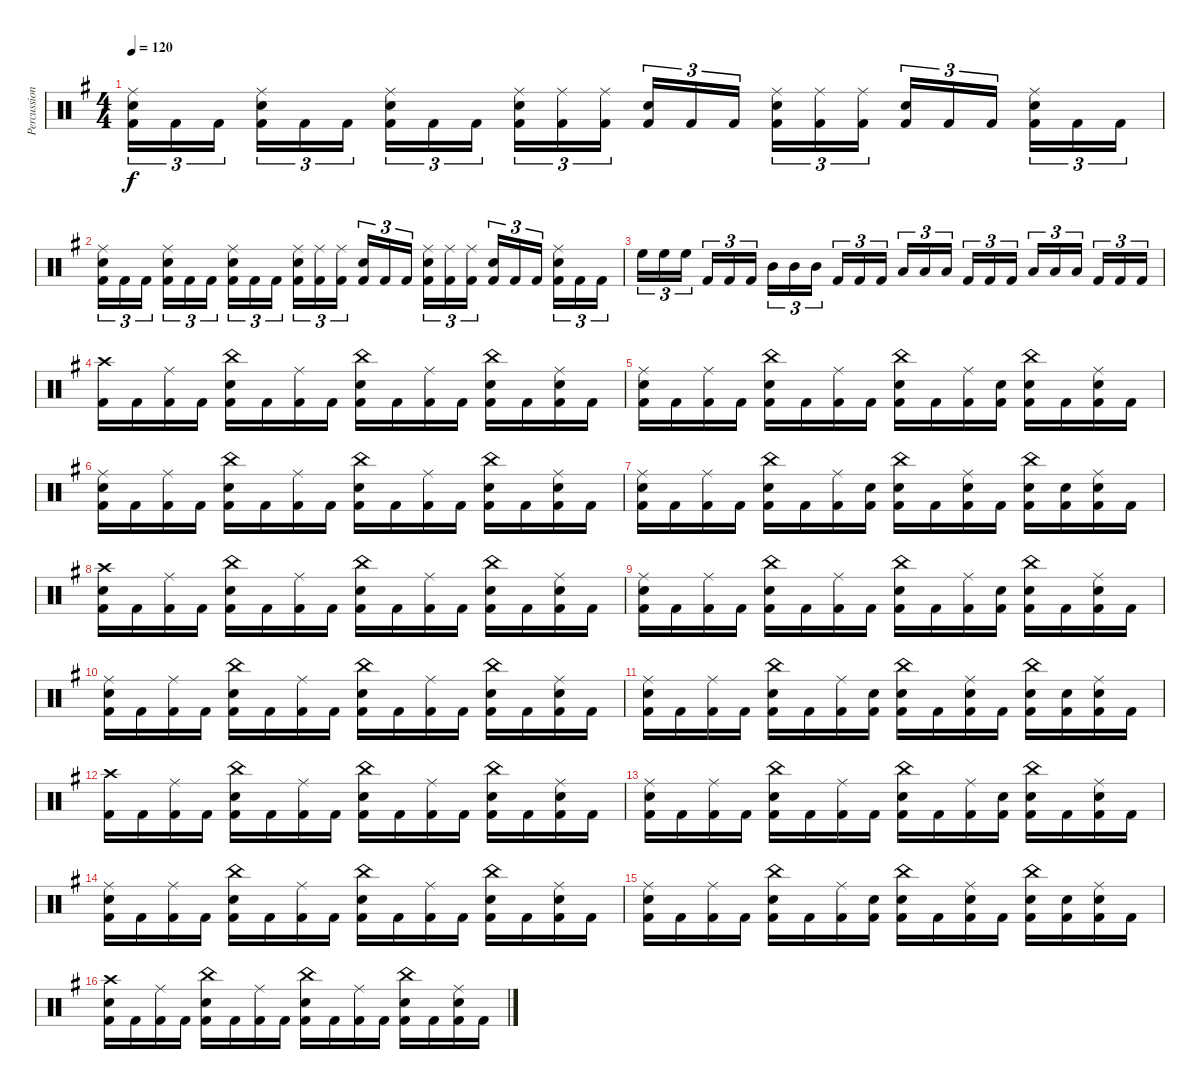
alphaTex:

\track ("Percussions" "Percussion") {instrument percussion}
\staff {score}
\articulation defaults
\ts (4 4)
\tempo 120
\clef neutral
\ks g
("Ride (middle)" "Snare (hit) 2" "Kick (hit) 2").16{tu (3 2) dy f} "Kick (hit) 2".16{tu (3 2)} "Kick (hit) 2".16{tu (3 2)} ("Ride (middle)" "Snare (hit) 2" "Kick (hit) 2").16{tu (3 2)} "Kick (hit) 2".16{tu (3 2)} "Kick (hit) 2".16{tu (3 2)} ("Ride (middle)" "Snare (hit) 2" "Kick (hit) 2").16{tu (3 2)} "Kick (hit) 2".16{tu (3 2)} "Kick (hit) 2".16{tu (3 2)} ("Ride (middle)" "Snare (hit) 2" "Kick (hit) 2").16{tu (3 2)} ("Ride (middle)" "Kick (hit) 2").16{tu (3 2)} ("Ride (middle)" "Kick (hit) 2").16{tu (3 2)} ("Snare (hit) 2" "Kick (hit) 2").16{tu (3 2)} "Kick (hit) 2".16{tu (3 2)} "Kick (hit) 2".16{tu (3 2)} ("Ride (middle)" "Snare (hit) 2" "Kick (hit) 2").16{tu (3 2)} ("Ride (middle)" "Kick (hit) 2").16{tu (3 2)} ("Ride (middle)" "Kick (hit) 2").16{tu (3 2)} ("Snare (hit) 2" "Kick (hit) 2").16{tu (3 2)} "Kick (hit) 2".16{tu (3 2)} "Kick (hit) 2".16{tu (3 2)} ("Ride (middle)" "Snare (hit) 2" "Kick (hit) 2").16{tu (3 2)} "Kick (hit) 2".16{tu (3 2)} "Kick (hit) 2".16{tu (3 2)} |
("Ride (middle)" "Snare (hit) 2" "Kick (hit) 2").16{tu (3 2)} "Kick (hit) 2".16{tu (3 2)} "Kick (hit) 2".16{tu (3 2)} ("Ride (middle)" "Snare (hit) 2" "Kick (hit) 2").16{tu (3 2)} "Kick (hit) 2".16{tu (3 2)} "Kick (hit) 2".16{tu (3 2)} ("Ride (middle)" "Snare (hit) 2" "Kick (hit) 2").16{tu (3 2)} "Kick (hit) 2".16{tu (3 2)} "Kick (hit) 2".16{tu (3 2)} ("Ride (middle)" "Snare (hit) 2" "Kick (hit) 2").16{tu (3 2)} ("Ride (middle)" "Kick (hit) 2").16{tu (3 2)} ("Ride (middle)" "Kick (hit) 2").16{tu (3 2)} ("Snare (hit) 2" "Kick (hit) 2").16{tu (3 2)} "Kick (hit) 2".16{tu (3 2)} "Kick (hit) 2".16{tu (3 2)} ("Ride (middle)" "Snare (hit) 2" "Kick (hit) 2").16{tu (3 2)} ("Ride (middle)" "Kick (hit) 2").16{tu (3 2)} ("Ride (middle)" "Kick (hit) 2").16{tu (3 2)} ("Snare (hit) 2" "Kick (hit) 2").16{tu (3 2)} "Kick (hit) 2".16{tu (3 2)} "Kick (hit) 2".16{tu (3 2)} ("Ride (middle)" "Snare (hit) 2" "Kick (hit) 2").16{tu (3 2)} "Kick (hit) 2".16{tu (3 2)} "Kick (hit) 2".16{tu (3 2)} |
"High Floor Tom (hit)".16{tu (3 2)} "High Floor Tom (hit)".16{tu (3 2)} "High Floor Tom (hit)".16{tu (3 2)} "Kick (hit) 2".16{tu (3 2)} "Kick (hit) 2".16{tu (3 2)} "Kick (hit) 2".16{tu (3 2)} "Mid Tom (hit)".16{tu (3 2)} "Mid Tom (hit)".16{tu (3 2)} "Mid Tom (hit)".16{tu (3 2)} "Kick (hit) 2".16{tu (3 2)} "Kick (hit) 2".16{tu (3 2)} "Kick (hit) 2".16{tu (3 2)} "Low Tom (hit)".16{tu (3 2)} "Low Tom (hit)".16{tu (3 2)} "Low Tom (hit)".16{tu (3 2)} "Kick (hit) 2".16{tu (3 2)} "Kick (hit) 2".16{tu (3 2)} "Kick (hit) 2".16{tu (3 2)} "Low Floor Tom (hit)".16{tu (3 2)} "Low Floor Tom (hit)".16{tu (3 2)} "Low Floor Tom (hit)".16{tu (3 2)} "Kick (hit) 2".16{tu (3 2)} "Kick (hit) 2".16{tu (3 2)} "Kick (hit) 2".16{tu (3 2)} |
("Crash high (hit)" "Kick (hit) 2").16 "Kick (hit) 2".16 ("Ride (middle)" "Kick (hit) 2").16 "Kick (hit) 2".16 ("China (hit)" "Snare (hit) 2" "Kick (hit) 2").16 "Kick (hit) 2".16 ("Ride (middle)" "Kick (hit) 2").16 "Kick (hit) 2".16 ("China (hit)" "Snare (hit) 2" "Kick (hit) 2").16 "Kick (hit) 2".16 ("Ride (middle)" "Kick (hit) 2").16 "Kick (hit) 2".16 ("China (hit)" "Snare (hit) 2" "Kick (hit) 2").16 "Kick (hit) 2".16 ("Ride (middle)" "Snare (hit) 2" "Kick (hit) 2").16 "Kick (hit) 2".16 |
("Ride (middle)" "Snare (hit) 2" "Kick (hit) 2").16 "Kick (hit) 2".16 ("Ride (middle)" "Kick (hit) 2").16 "Kick (hit) 2".16 ("China (hit)" "Snare (hit) 2" "Kick (hit) 2").16 "Kick (hit) 2".16 ("Ride (middle)" "Kick (hit) 2").16 "Kick (hit) 2".16 ("China (hit)" "Snare (hit) 2" "Kick (hit) 2").16 "Kick (hit) 2".16 ("Ride (middle)" "Kick (hit) 2").16 ("Snare (hit) 2" "Kick (hit) 2").16 ("China (hit)" "Snare (hit) 2" "Kick (hit) 2").16 "Kick (hit) 2".16 ("Ride (middle)" "Snare (hit) 2" "Kick (hit) 2").16 "Kick (hit) 2".16 |
("Ride (middle)" "Snare (hit) 2" "Kick (hit) 2").16 "Kick (hit) 2".16 ("Ride (middle)" "Kick (hit) 2").16 "Kick (hit) 2".16 ("China (hit)" "Snare (hit) 2" "Kick (hit) 2").16 "Kick (hit) 2".16 ("Ride (middle)" "Kick (hit) 2").16 "Kick (hit) 2".16 ("China (hit)" "Snare (hit) 2" "Kick (hit) 2").16 "Kick (hit) 2".16 ("Ride (middle)" "Kick (hit) 2").16 "Kick (hit) 2".16 ("China (hit)" "Snare (hit) 2" "Kick (hit) 2").16 "Kick (hit) 2".16 ("Ride (middle)" "Snare (hit) 2" "Kick (hit) 2").16 "Kick (hit) 2".16 |
("Ride (middle)" "Snare (hit) 2" "Kick (hit) 2").16 "Kick (hit) 2".16 ("Ride (middle)" "Kick (hit) 2").16 "Kick (hit) 2".16 ("China (hit)" "Snare (hit) 2" "Kick (hit) 2").16 "Kick (hit) 2".16 ("Ride (middle)" "Kick (hit) 2").16 ("Snare (hit) 2" "Kick (hit) 2").16 ("China (hit)" "Snare (hit) 2" "Kick (hit) 2").16 "Kick (hit) 2".16 ("Ride (middle)" "Snare (hit) 2" "Kick (hit) 2").16 "Kick (hit) 2".16 ("China (hit)" "Snare (hit) 2" "Kick (hit) 2").16 ("Snare (hit) 2" "Kick (hit) 2").16 ("Ride (middle)" "Snare (hit) 2" "Kick (hit) 2").16 "Kick (hit) 2".16 |
("Crash high (hit)" "Snare (hit) 2" "Kick (hit) 2").16 "Kick (hit) 2".16 ("Ride (middle)" "Kick (hit) 2").16 "Kick (hit) 2".16 ("China (hit)" "Snare (hit) 2" "Kick (hit) 2").16 "Kick (hit) 2".16 ("Ride (middle)" "Kick (hit) 2").16 "Kick (hit) 2".16 ("China (hit)" "Snare (hit) 2" "Kick (hit) 2").16 "Kick (hit) 2".16 ("Ride (middle)" "Kick (hit) 2").16 "Kick (hit) 2".16 ("China (hit)" "Snare (hit) 2" "Kick (hit) 2").16 "Kick (hit) 2".16 ("Ride (middle)" "Snare (hit) 2" "Kick (hit) 2").16 "Kick (hit) 2".16 |
("Ride (middle)" "Snare (hit) 2" "Kick (hit) 2").16 "Kick (hit) 2".16 ("Ride (middle)" "Kick (hit) 2").16 "Kick (hit) 2".16 ("China (hit)" "Snare (hit) 2" "Kick (hit) 2").16 "Kick (hit) 2".16 ("Ride (middle)" "Kick (hit) 2").16 "Kick (hit) 2".16 ("China (hit)" "Snare (hit) 2" "Kick (hit) 2").16 "Kick (hit) 2".16 ("Ride (middle)" "Kick (hit) 2").16 ("Snare (hit) 2" "Kick (hit) 2").16 ("China (hit)" "Snare (hit) 2" "Kick (hit) 2").16 "Kick (hit) 2".16 ("Ride (middle)" "Snare (hit) 2" "Kick (hit) 2").16 "Kick (hit) 2".16 |
("Ride (middle)" "Snare (hit) 2" "Kick (hit) 2").16 "Kick (hit) 2".16 ("Ride (middle)" "Kick (hit) 2").16 "Kick (hit) 2".16 ("China (hit)" "Snare (hit) 2" "Kick (hit) 2").16 "Kick (hit) 2".16 ("Ride (middle)" "Kick (hit) 2").16 "Kick (hit) 2".16 ("China (hit)" "Snare (hit) 2" "Kick (hit) 2").16 "Kick (hit) 2".16 ("Ride (middle)" "Kick (hit) 2").16 "Kick (hit) 2".16 ("China (hit)" "Snare (hit) 2" "Kick (hit) 2").16 "Kick (hit) 2".16 ("Ride (middle)" "Snare (hit) 2" "Kick (hit) 2").16 "Kick (hit) 2".16 |
("Ride (middle)" "Snare (hit) 2" "Kick (hit) 2").16 "Kick (hit) 2".16 ("Ride (middle)" "Kick (hit) 2").16 "Kick (hit) 2".16 ("China (hit)" "Snare (hit) 2" "Kick (hit) 2").16 "Kick (hit) 2".16 ("Ride (middle)" "Kick (hit) 2").16 ("Snare (hit) 2" "Kick (hit) 2").16 ("China (hit)" "Snare (hit) 2" "Kick (hit) 2").16 "Kick (hit) 2".16 ("Ride (middle)" "Snare (hit) 2" "Kick (hit) 2").16 "Kick (hit) 2".16 ("China (hit)" "Snare (hit) 2" "Kick (hit) 2").16 ("Snare (hit) 2" "Kick (hit) 2").16 ("Ride (middle)" "Snare (hit) 2" "Kick (hit) 2").16 "Kick (hit) 2".16 |
("Crash high (hit)" "Kick (hit) 2").16 "Kick (hit) 2".16 ("Ride (middle)" "Kick (hit) 2").16 "Kick (hit) 2".16 ("China (hit)" "Snare (hit) 2" "Kick (hit) 2").16 "Kick (hit) 2".16 ("Ride (middle)" "Kick (hit) 2").16 "Kick (hit) 2".16 ("China (hit)" "Snare (hit) 2" "Kick (hit) 2").16 "Kick (hit) 2".16 ("Ride (middle)" "Kick (hit) 2").16 "Kick (hit) 2".16 ("China (hit)" "Snare (hit) 2" "Kick (hit) 2").16 "Kick (hit) 2".16 ("Ride (middle)" "Snare (hit) 2" "Kick (hit) 2").16 "Kick (hit) 2".16 |
("Ride (middle)" "Snare (hit) 2" "Kick (hit) 2").16 "Kick (hit) 2".16 ("Ride (middle)" "Kick (hit) 2").16 "Kick (hit) 2".16 ("China (hit)" "Snare (hit) 2" "Kick (hit) 2").16 "Kick (hit) 2".16 ("Ride (middle)" "Kick (hit) 2").16 "Kick (hit) 2".16 ("China (hit)" "Snare (hit) 2" "Kick (hit) 2").16 "Kick (hit) 2".16 ("Ride (middle)" "Kick (hit) 2").16 ("Snare (hit) 2" "Kick (hit) 2").16 ("China (hit)" "Snare (hit) 2" "Kick (hit) 2").16 "Kick (hit) 2".16 ("Ride (middle)" "Snare (hit) 2" "Kick (hit) 2").16 "Kick (hit) 2".16 |
("Ride (middle)" "Snare (hit) 2" "Kick (hit) 2").16 "Kick (hit) 2".16 ("Ride (middle)" "Kick (hit) 2").16 "Kick (hit) 2".16 ("China (hit)" "Snare (hit) 2" "Kick (hit) 2").16 "Kick (hit) 2".16 ("Ride (middle)" "Kick (hit) 2").16 "Kick (hit) 2".16 ("China (hit)" "Snare (hit) 2" "Kick (hit) 2").16 "Kick (hit) 2".16 ("Ride (middle)" "Kick (hit) 2").16 "Kick (hit) 2".16 ("China (hit)" "Snare (hit) 2" "Kick (hit) 2").16 "Kick (hit) 2".16 ("Ride (middle)" "Snare (hit) 2" "Kick (hit) 2").16 "Kick (hit) 2".16 |
("Ride (middle)" "Snare (hit) 2" "Kick (hit) 2").16 "Kick (hit) 2".16 ("Ride (middle)" "Kick (hit) 2").16 "Kick (hit) 2".16 ("China (hit)" "Snare (hit) 2" "Kick (hit) 2").16 "Kick (hit) 2".16 ("Ride (middle)" "Kick (hit) 2").16 ("Snare (hit) 2" "Kick (hit) 2").16 ("China (hit)" "Snare (hit) 2" "Kick (hit) 2").16 "Kick (hit) 2".16 ("Ride (middle)" "Snare (hit) 2" "Kick (hit) 2").16 "Kick (hit) 2".16 ("China (hit)" "Snare (hit) 2" "Kick (hit) 2").16 ("Snare (hit) 2" "Kick (hit) 2").16 ("Ride (middle)" "Snare (hit) 2" "Kick (hit) 2").16 "Kick (hit) 2".16 |
("Crash high (hit)" "Snare (hit) 2" "Kick (hit) 2").16 "Kick (hit) 2".16 ("Ride (middle)" "Kick (hit) 2").16 "Kick (hit) 2".16 ("China (hit)" "Snare (hit) 2" "Kick (hit) 2").16 "Kick (hit) 2".16 ("Ride (middle)" "Kick (hit) 2").16 "Kick (hit) 2".16 ("China (hit)" "Snare (hit) 2" "Kick (hit) 2").16 "Kick (hit) 2".16 ("Ride (middle)" "Kick (hit) 2").16 "Kick (hit) 2".16 ("China (hit)" "Snare (hit) 2" "Kick (hit) 2").16 "Kick (hit) 2".16 ("Ride (middle)" "Snare (hit) 2" "Kick (hit) 2").16 "Kick (hit) 2".16
